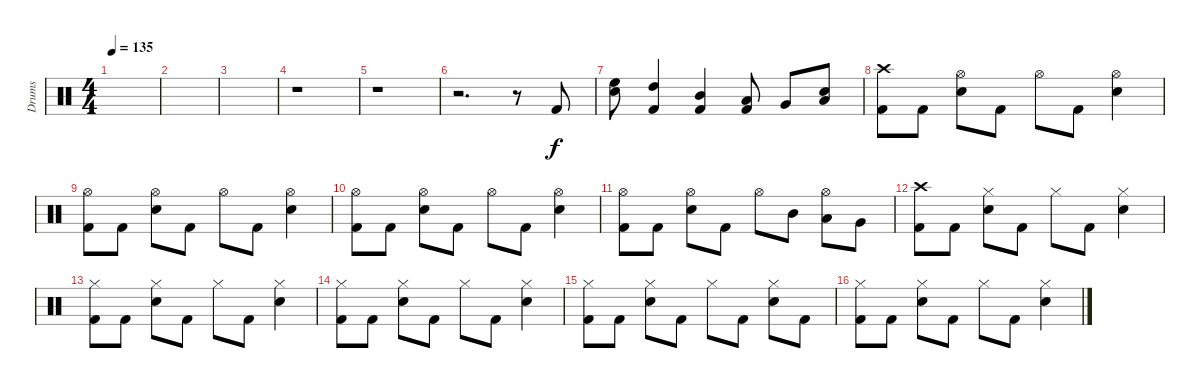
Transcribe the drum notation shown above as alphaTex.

\track ("Drums" "Drums") {instrument percussion}
\staff {score}
\articulation defaults
\ts (4 4)
\tempo 135
\clef neutral
\ks c
|
|
|
r.1 |
r.1 |
r.2{d} r.8 "Kick (hit) 2".8{volume 16} |
("Electric Snare (hit)" "High Floor Tom (hit)").8{volume 16} ("Kick (hit) 2" "High Tom (hit)").4 ("Kick (hit) 2" "Mid Tom (hit)").4 ("Kick (hit) 2" "Low Tom (hit)").8 "Very Low Tom (hit)".8 ("Electric Snare (hit)" "Low Floor Tom (hit)").8 |
("Crash high (hit)" "Kick (hit) 2").8 "Kick (hit) 2".8 ("Hi-Hat (open)" "Electric Snare (hit)").8 "Kick (hit) 2".8 "Hi-Hat (open)".8 "Kick (hit) 2".8 ("Hi-Hat (open)" "Electric Snare (hit)").4 |
("Hi-Hat (open)" "Kick (hit) 2").8 "Kick (hit) 2".8 ("Hi-Hat (open)" "Electric Snare (hit)").8 "Kick (hit) 2".8 "Hi-Hat (open)".8 "Kick (hit) 2".8 ("Hi-Hat (open)" "Electric Snare (hit)").4 |
("Hi-Hat (open)" "Kick (hit) 2").8 "Kick (hit) 2".8 ("Hi-Hat (open)" "Electric Snare (hit)").8 "Kick (hit) 2".8 "Hi-Hat (open)".8 "Kick (hit) 2".8 ("Hi-Hat (open)" "Electric Snare (hit)").4 |
("Hi-Hat (open)" "Kick (hit) 2").8 "Kick (hit) 2".8 ("Hi-Hat (open)" "Electric Snare (hit)").8 "Kick (hit) 2".8 "Hi-Hat (open)".8 "Mid Tom (hit)".8 ("Hi-Hat (open)" "Low Tom (hit)").8 "Very Low Tom (hit)".8 |
("Crash high (hit)" "Kick (hit) 2").8 "Kick (hit) 2".8 ("Hi-Hat (closed)" "Electric Snare (hit)").8 "Kick (hit) 2".8 "Hi-Hat (closed)".8 "Kick (hit) 2".8 ("Hi-Hat (closed)" "Electric Snare (hit)").4 |
("Hi-Hat (closed)" "Kick (hit) 2").8 "Kick (hit) 2".8 ("Hi-Hat (closed)" "Electric Snare (hit)").8 "Kick (hit) 2".8 "Hi-Hat (closed)".8 "Kick (hit) 2".8 ("Hi-Hat (closed)" "Electric Snare (hit)").4 |
("Hi-Hat (closed)" "Kick (hit) 2").8 "Kick (hit) 2".8 ("Hi-Hat (closed)" "Electric Snare (hit)").8 "Kick (hit) 2".8 "Hi-Hat (closed)".8 "Kick (hit) 2".8 ("Hi-Hat (closed)" "Electric Snare (hit)").4 |
("Hi-Hat (closed)" "Kick (hit) 2").8 "Kick (hit) 2".8 ("Hi-Hat (closed)" "Electric Snare (hit)").8 "Kick (hit) 2".8 "Hi-Hat (closed)".8 "Kick (hit) 2".8 ("Hi-Hat (closed)" "Electric Snare (hit)").8 "Kick (hit) 2".8 |
("Hi-Hat (closed)" "Kick (hit) 2").8 "Kick (hit) 2".8 ("Hi-Hat (closed)" "Electric Snare (hit)").8 "Kick (hit) 2".8 "Hi-Hat (closed)".8 "Kick (hit) 2".8 ("Hi-Hat (closed)" "Electric Snare (hit)").4
